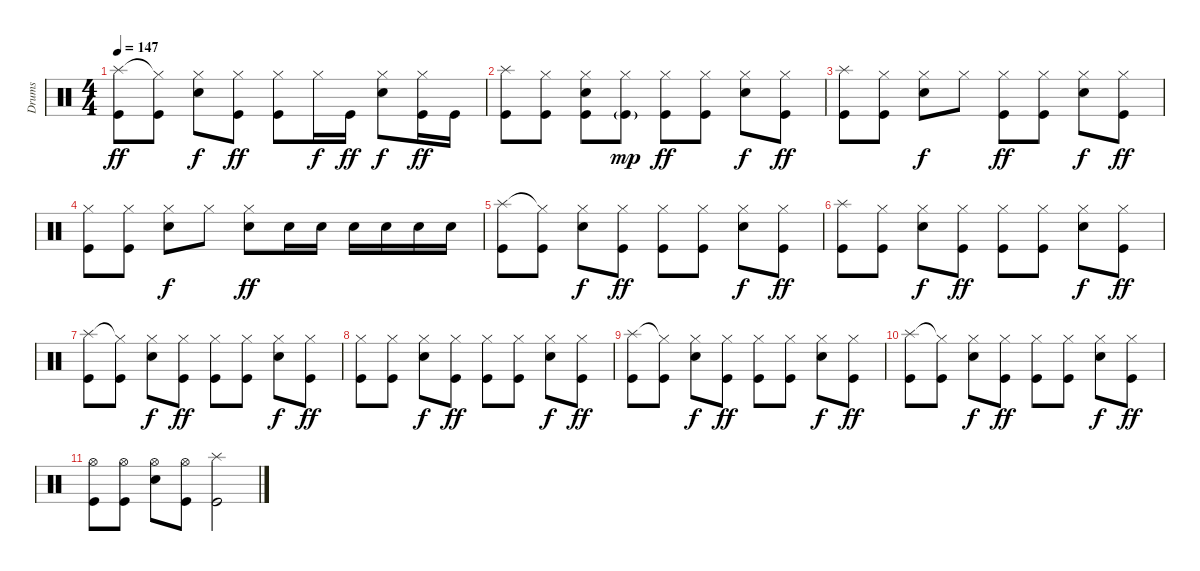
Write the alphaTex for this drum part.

\track ("Drums" "Drums") {instrument percussion}
\staff {score}
\articulation defaults
\ts (4 4)
\tempo 147
\clef neutral
\ks c
("Splash (hit)" "Kick (hit)").8{dy ff} ("Hi-Hat (closed)"{t} "Kick (hit)").8 ("Hi-Hat (closed)" "Snare (hit) 2").8{dy f} ("Hi-Hat (closed)" "Kick (hit)").8{dy ff} ("Hi-Hat (closed)" "Kick (hit)").8 "Hi-Hat (closed)".16{dy f} "Kick (hit)".16{dy ff} ("Hi-Hat (closed)" "Snare (hit) 2").8{dy f} ("Hi-Hat (closed)" "Kick (hit)").16{dy ff} "Kick (hit)".16 |
("Splash (hit)" "Kick (hit)").8 ("Hi-Hat (closed)" "Kick (hit)").8 ("Snare (hit) 2" "Hi-Hat (closed)" "Kick (hit)").8 ("Hi-Hat (closed)" "Kick (hit)"{g}).8{dy mp} ("Hi-Hat (closed)" "Kick (hit)").8{dy ff} ("Hi-Hat (closed)" "Kick (hit)").8 ("Hi-Hat (closed)" "Snare (hit) 2").8{dy f} ("Hi-Hat (closed)" "Kick (hit)").8{dy ff} |
("Splash (hit)" "Kick (hit)").8 ("Hi-Hat (closed)" "Kick (hit)").8 ("Hi-Hat (closed)" "Snare (hit) 2").8{dy f} "Hi-Hat (closed)".8 ("Hi-Hat (closed)" "Kick (hit)").8{dy ff} ("Hi-Hat (closed)" "Kick (hit)").8 ("Hi-Hat (closed)" "Snare (hit) 2").8{dy f} ("Hi-Hat (closed)" "Kick (hit)").8{dy ff} |
("Hi-Hat (closed)" "Kick (hit)").8 ("Hi-Hat (closed)" "Kick (hit)").8 ("Hi-Hat (closed)" "Snare (hit) 2").8{dy f} "Hi-Hat (closed)".8 ("Hi-Hat (closed)" "Snare (hit) 2").8{dy ff} "Snare (hit) 2".16 "Snare (hit) 2".16 "Snare (hit) 2".16 "Snare (hit) 2".16 "Snare (hit) 2".16 "Snare (hit) 2".16 |
("Splash (hit)" "Kick (hit)").8 ("Hi-Hat (closed)"{t} "Kick (hit)").8 ("Hi-Hat (closed)" "Snare (hit) 2").8{dy f} ("Hi-Hat (closed)" "Kick (hit)").8{dy ff} ("Hi-Hat (closed)" "Kick (hit)").8 ("Hi-Hat (closed)" "Kick (hit)").8 ("Hi-Hat (closed)" "Snare (hit) 2").8{dy f} ("Hi-Hat (closed)" "Kick (hit)").8{dy ff} |
("Splash (hit)" "Kick (hit)").8 ("Hi-Hat (closed)" "Kick (hit)").8 ("Hi-Hat (closed)" "Snare (hit) 2").8{dy f} ("Hi-Hat (closed)" "Kick (hit)").8{dy ff} ("Hi-Hat (closed)" "Kick (hit)").8 ("Hi-Hat (closed)" "Kick (hit)").8 ("Hi-Hat (closed)" "Snare (hit) 2").8{dy f} ("Hi-Hat (closed)" "Kick (hit)").8{dy ff} |
("Splash (hit)" "Kick (hit)").8 ("Hi-Hat (closed)"{t} "Kick (hit)").8 ("Hi-Hat (closed)" "Snare (hit) 2").8{dy f} ("Hi-Hat (closed)" "Kick (hit)").8{dy ff} ("Hi-Hat (closed)" "Kick (hit)").8 ("Hi-Hat (closed)" "Kick (hit)").8 ("Hi-Hat (closed)" "Snare (hit) 2").8{dy f} ("Hi-Hat (closed)" "Kick (hit)").8{dy ff} |
("Hi-Hat (closed)" "Kick (hit)").8 ("Hi-Hat (closed)" "Kick (hit)").8 ("Hi-Hat (closed)" "Snare (hit) 2").8{dy f} ("Hi-Hat (closed)" "Kick (hit)").8{dy ff} ("Hi-Hat (closed)" "Kick (hit)").8 ("Hi-Hat (closed)" "Kick (hit)").8 ("Hi-Hat (closed)" "Snare (hit) 2").8{dy f} ("Hi-Hat (closed)" "Kick (hit)").8{dy ff} |
("Splash (hit)" "Kick (hit)").8 ("Hi-Hat (closed)"{t} "Kick (hit)").8 ("Hi-Hat (closed)" "Snare (hit) 2").8{dy f} ("Hi-Hat (closed)" "Kick (hit)").8{dy ff} ("Hi-Hat (closed)" "Kick (hit)").8 ("Hi-Hat (closed)" "Kick (hit)").8 ("Hi-Hat (closed)" "Snare (hit) 2").8{dy f} ("Hi-Hat (closed)" "Kick (hit)").8{dy ff} |
("Splash (hit)" "Kick (hit)").8 ("Hi-Hat (closed)"{t} "Kick (hit)").8 ("Hi-Hat (closed)" "Snare (hit) 2").8{dy f} ("Hi-Hat (closed)" "Kick (hit)").8{dy ff} ("Hi-Hat (closed)" "Kick (hit)").8 ("Hi-Hat (closed)" "Kick (hit)").8 ("Hi-Hat (closed)" "Snare (hit) 2").8{dy f} ("Hi-Hat (closed)" "Kick (hit)").8{dy ff} |
("Hi-Hat (open)" "Kick (hit)").8 ("Hi-Hat (open)" "Kick (hit)").8 ("Hi-Hat (open)" "Snare (hit) 2").8 ("Hi-Hat (open)" "Kick (hit)").8 ("Splash (hit)" "Kick (hit)").2
